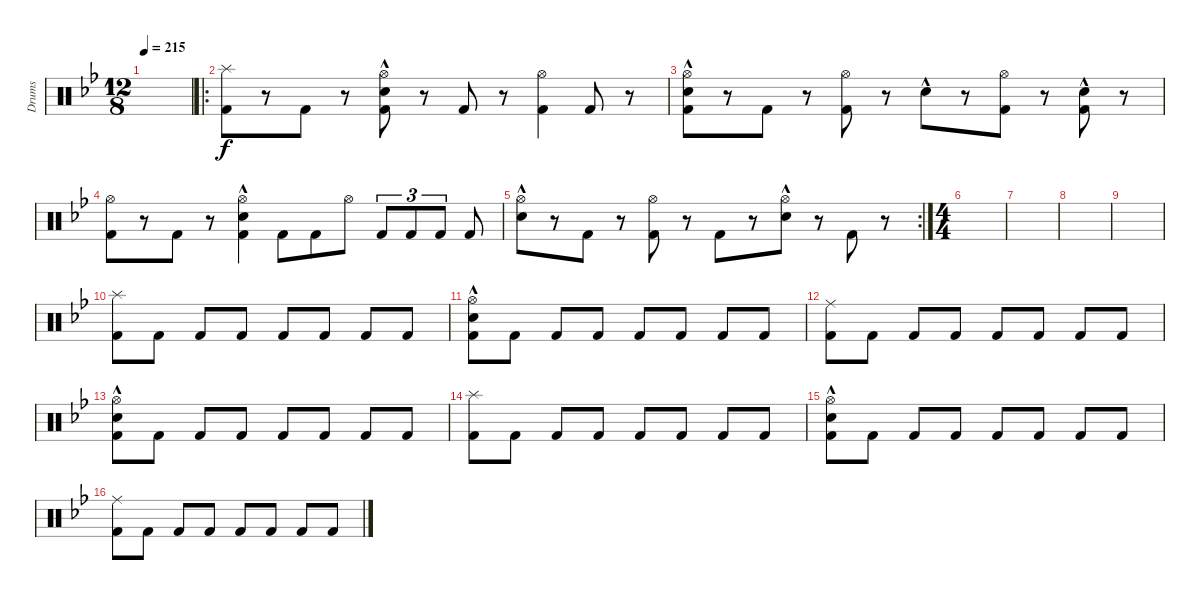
\defaultSystemsLayout 4
\bracketExtendMode groupsimilarinstruments
\otherSystemsTrackNameOrientation horizontal
\track ("Drumkit" "Drums") {instrument percussion}
\staff {score}
\articulation defaults
\ts (12 8)
\tempo 215
\clef neutral
\scale
0.311111
\ks bb
|
\ro
\scale
0.377778 ("Kick (hit) 2"{acc forcenatural} "Splash (hit)"{acc forcenatural}).8{beam Down} r.8{beam Down} "Kick (hit) 2"{acc forcenatural}.8{beam Down} r.8{beam Down} ("Kick (hit) 2"{acc forcenatural} "Hi-Hat (open)"{acc forcenatural} "Snare (hit) 2"{hac acc forcenatural}).8{beam Down} r.8{beam Down} "Kick (hit) 2"{acc forcenatural}.8{beam Up} r.8{beam Up} ("Kick (hit) 2"{acc forcenatural} "Hi-Hat (open)"{acc forcenatural}).4{beam Down} "Kick (hit) 2"{acc forcenatural}.8{beam Up} r.8{beam Up} |
\scale
0.321839 ("Kick (hit) 2"{acc forcenatural} "Hi-Hat (open)"{acc forcenatural} "Snare (hit) 2"{hac acc forcenatural}).8{beam Down} r.8{beam Down} "Kick (hit) 2"{acc forcenatural}.8{beam Down} r.8{beam Down} ("Kick (hit) 2"{acc forcenatural} "Hi-Hat (open)"{acc forcenatural}).8{beam Down} r.8{beam Down} "Snare (hit) 2"{hac acc forcenatural}.8{beam Down} r.8{beam Down} ("Kick (hit) 2"{acc forcenatural} "Hi-Hat (open)"{acc forcenatural}).8{beam Down} r.8{beam Down} ("Kick (hit) 2"{acc forcenatural} "Snare (hit) 2"{hac acc forcenatural}).8{beam Up} r.8{beam Up} |
\scale
0.321839 ("Kick (hit) 2"{acc forcenatural} "Hi-Hat (open)"{acc forcenatural}).8{beam Down} r.8{beam Down} "Kick (hit) 2"{acc forcenatural}.8{beam Down} r.8{beam Down} ("Kick (hit) 2"{acc forcenatural} "Snare (hit) 2"{hac acc forcenatural} "Hi-Hat (open)"{acc forcenatural}).4{beam Down} "Kick (hit) 2"{acc forcenatural}.8{beam Down} "Kick (hit) 2"{acc forcenatural}.8{beam Down} "Hi-Hat (open)"{acc forcenatural}.8{beam Down} "Kick (hit) 2"{acc forcenatural}.8{tu (3 2) beam Up} "Kick (hit) 2"{acc forcenatural}.8{tu (3 2) beam Up} "Kick (hit) 2"{acc forcenatural}.8{tu (3 2) beam Up} "Kick (hit) 2"{acc forcenatural}.8{beam Up} |
\rc 2
\scale
0.356322 ("Snare (hit) 2"{hac acc forcenatural} "Hi-Hat (open)"{acc forcenatural}).8{beam Down} r.8{beam Down} "Kick (hit) 2"{acc forcenatural}.8{beam Down} r.8{beam Down} ("Kick (hit) 2"{acc forcenatural} "Hi-Hat (open)"{acc forcenatural}).8{beam Down} r.8{beam Down} "Kick (hit) 2"{acc forcenatural}.8{beam Down} r.8{beam Down} ("Snare (hit) 2"{hac acc forcenatural} "Hi-Hat (open)"{acc forcenatural}).8{beam Down} r.8{beam Down} "Kick (hit) 2"{acc forcenatural}.8{beam Up} r.8{beam Up} |
\ts (4 4)
\scale
0.474178 |
\scale
0.262911 |
\scale
0.262911 |
\scale
0.333333 |
\scale
0.333333 ("Splash (hit)"{acc forcenatural} "Kick (hit) 2"{acc forcenatural}).8{beam Down} "Kick (hit) 2"{acc forcenatural}.8{beam Down} "Kick (hit) 2"{acc forcenatural}.8{beam Up} "Kick (hit) 2"{acc forcenatural}.8{beam Up} "Kick (hit) 2"{acc forcenatural}.8{beam Up} "Kick (hit) 2"{acc forcenatural}.8{beam Up} "Kick (hit) 2"{acc forcenatural}.8{beam Up} "Kick (hit) 2"{acc forcenatural}.8{beam Up} |
\scale
0.333333 ("Snare (hit) 2"{hac acc forcenatural} "Kick (hit) 2"{acc forcenatural} "Hi-Hat (open)"{acc forcenatural}).8{beam Down} "Kick (hit) 2"{acc forcenatural}.8{beam Down} "Kick (hit) 2"{acc forcenatural}.8{beam Up} "Kick (hit) 2"{acc forcenatural}.8{beam Up} "Kick (hit) 2"{acc forcenatural}.8{beam Up} "Kick (hit) 2"{acc forcenatural}.8{beam Up} "Kick (hit) 2"{acc forcenatural}.8{beam Up} "Kick (hit) 2"{acc forcenatural}.8{beam Up} |
\scale
0.333333 ("Kick (hit) 2"{acc forcenatural} "Ride (middle)"{acc forcenatural}).8{beam Down} "Kick (hit) 2"{acc forcenatural}.8{beam Down} "Kick (hit) 2"{acc forcenatural}.8{beam Up} "Kick (hit) 2"{acc forcenatural}.8{beam Up} "Kick (hit) 2"{acc forcenatural}.8{beam Up} "Kick (hit) 2"{acc forcenatural}.8{beam Up} "Kick (hit) 2"{acc forcenatural}.8{beam Up} "Kick (hit) 2"{acc forcenatural}.8{beam Up} |
\scale
0.333333 ("Snare (hit) 2"{hac acc forcenatural} "Kick (hit) 2"{acc forcenatural} "Hi-Hat (open)"{acc forcenatural}).8{beam Down} "Kick (hit) 2"{acc forcenatural}.8{beam Down} "Kick (hit) 2"{acc forcenatural}.8{beam Up} "Kick (hit) 2"{acc forcenatural}.8{beam Up} "Kick (hit) 2"{acc forcenatural}.8{beam Up} "Kick (hit) 2"{acc forcenatural}.8{beam Up} "Kick (hit) 2"{acc forcenatural}.8{beam Up} "Kick (hit) 2"{acc forcenatural}.8{beam Up} |
\scale
0.333333 ("Splash (hit)"{acc forcenatural} "Kick (hit) 2"{acc forcenatural}).8{beam Down} "Kick (hit) 2"{acc forcenatural}.8{beam Down} "Kick (hit) 2"{acc forcenatural}.8{beam Up} "Kick (hit) 2"{acc forcenatural}.8{beam Up} "Kick (hit) 2"{acc forcenatural}.8{beam Up} "Kick (hit) 2"{acc forcenatural}.8{beam Up} "Kick (hit) 2"{acc forcenatural}.8{beam Up} "Kick (hit) 2"{acc forcenatural}.8{beam Up} |
\scale
0.333333 ("Snare (hit) 2"{hac acc forcenatural} "Kick (hit) 2"{acc forcenatural} "Hi-Hat (open)"{acc forcenatural}).8{beam Down} "Kick (hit) 2"{acc forcenatural}.8{beam Down} "Kick (hit) 2"{acc forcenatural}.8{beam Up} "Kick (hit) 2"{acc forcenatural}.8{beam Up} "Kick (hit) 2"{acc forcenatural}.8{beam Up} "Kick (hit) 2"{acc forcenatural}.8{beam Up} "Kick (hit) 2"{acc forcenatural}.8{beam Up} "Kick (hit) 2"{acc forcenatural}.8{beam Up} |
\scale
0.333333 ("Kick (hit) 2"{acc forcenatural} "Ride (middle)"{acc forcenatural}).8{beam Down} "Kick (hit) 2"{acc forcenatural}.8{beam Down} "Kick (hit) 2"{acc forcenatural}.8{beam Up} "Kick (hit) 2"{acc forcenatural}.8{beam Up} "Kick (hit) 2"{acc forcenatural}.8{beam Up} "Kick (hit) 2"{acc forcenatural}.8{beam Up} "Kick (hit) 2"{acc forcenatural}.8{beam Up} "Kick (hit) 2"{acc forcenatural}.8{beam Up}
